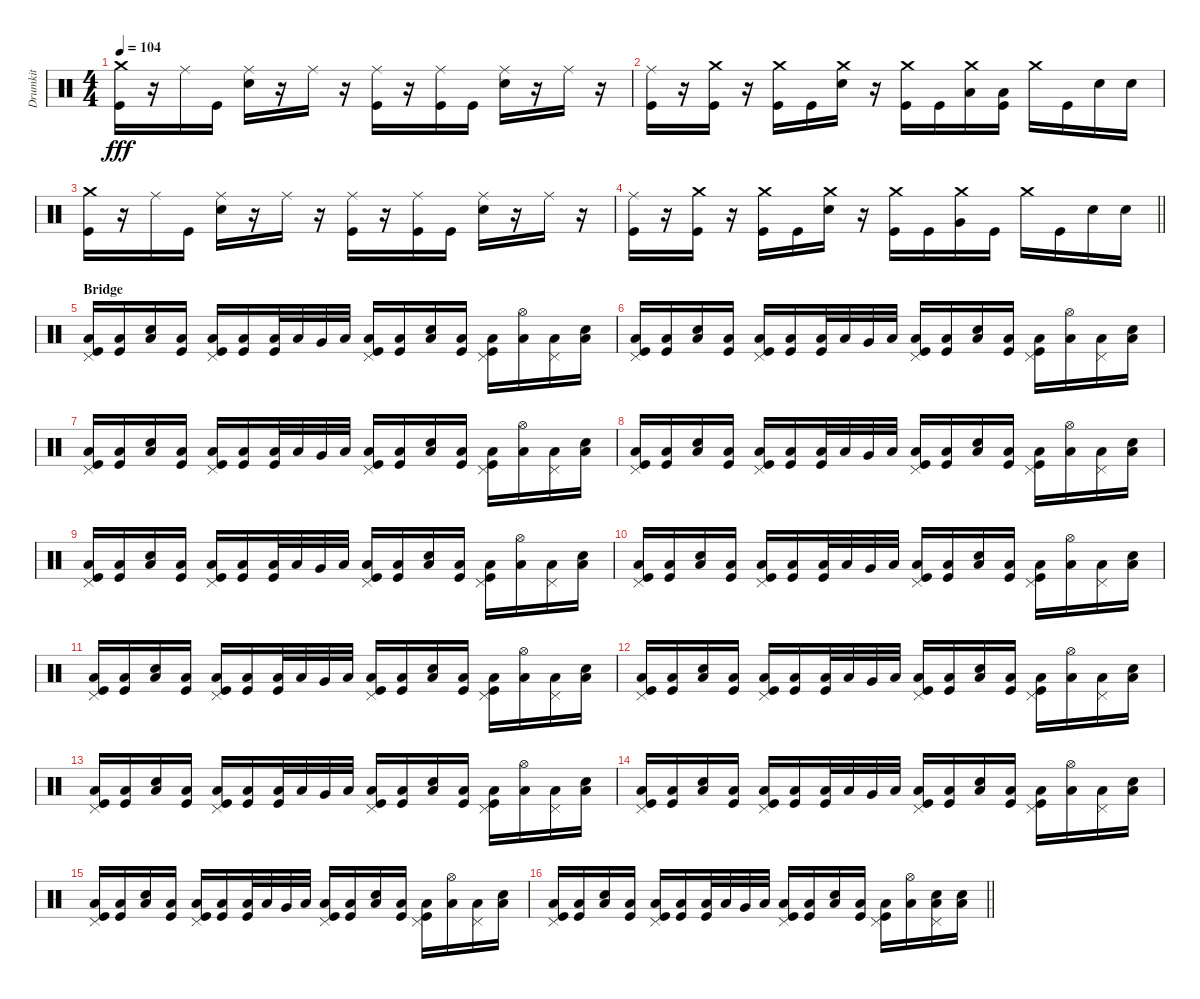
\track ("Drumkit" "Drumkit") {instrument percussion}
\staff {score}
\articulation defaults
\ts (4 4)
\tempo 104
\clef neutral
\ks c
("Crash medium (hit)" "Kick (hit)").16{dy fff} r.16 "Ride (middle)".16 "Kick (hit)".16 ("Ride (middle)" "Snare (hit) 2").16 r.16 "Ride (middle)".16 r.16 ("Ride (middle)" "Kick (hit)").16 r.16 ("Ride (middle)" "Kick (hit)").16 "Kick (hit)".16 ("Ride (middle)" "Snare (hit) 2").16 r.16 "Ride (middle)".16 r.16 |
("Ride (middle)" "Kick (hit)").16 r.16 ("Crash medium (hit)" "Kick (hit)").16 r.16 ("Crash medium (hit)" "Kick (hit)").16 "Kick (hit)".16 ("Crash medium (hit)" "Snare (hit) 2").16 r.16 ("Crash medium (hit)" "Kick (hit)").16 "Kick (hit)".16 ("Crash medium (hit)" "Low Tom (hit)").16 ("Low Tom (hit)" "Kick (hit)").16 "Crash medium (hit)".16 "Kick (hit)".16 "Snare (hit) 2".16 "Snare (hit) 2".16 |
("Crash medium (hit)" "Kick (hit)").16 r.16 "Ride (middle)".16 "Kick (hit)".16 ("Ride (middle)" "Snare (hit) 2").16 r.16 "Ride (middle)".16 r.16 ("Ride (middle)" "Kick (hit)").16 r.16 ("Ride (middle)" "Kick (hit)").16 "Kick (hit)".16 ("Ride (middle)" "Snare (hit) 2").16 r.16 "Ride (middle)".16 r.16 |
\barLineRight lightlight
("Ride (middle)" "Kick (hit)").16 r.16 ("Crash medium (hit)" "Kick (hit)").16 r.16 ("Crash medium (hit)" "Kick (hit)").16 "Kick (hit)".16 ("Crash medium (hit)" "Snare (hit) 2").16 r.16 ("Crash medium (hit)" "Kick (hit)").16 "Kick (hit)".16 ("Crash medium (hit)" "Very Low Tom (hit)").16 "Kick (hit)".16 "Crash medium (hit)".16 "Kick (hit)".16 "Snare (hit) 2".16 "Snare (hit) 2".16 |
\section ("" "Bridge")
("Pedal Hi-Hat (hit)" "Low Floor Tom (hit)" "Kick (hit)").16 ("Low Floor Tom (hit)" "Kick (hit)").16 ("Low Floor Tom (hit)" "Snare (hit) 2").16 ("Low Floor Tom (hit)" "Kick (hit)").16 ("Pedal Hi-Hat (hit)" "Low Floor Tom (hit)" "Kick (hit)").16 ("Low Floor Tom (hit)" "Kick (hit)").16 ("Low Tom (hit)" "Kick (hit)").32 "Low Tom (hit)".32 "Very Low Tom (hit)".32 "Low Floor Tom (hit)".32 ("Pedal Hi-Hat (hit)" "Low Floor Tom (hit)" "Kick (hit)").16 ("Low Floor Tom (hit)" "Kick (hit)").16 ("Low Floor Tom (hit)" "Snare (hit) 2").16 ("Low Floor Tom (hit)" "Kick (hit)").16 ("Pedal Hi-Hat (hit)" "Low Floor Tom (hit)" "Kick (hit)").16 ("Hi-Hat (open)" "Low Floor Tom (hit)").16 ("Pedal Hi-Hat (hit)" "Low Floor Tom (hit)").16 ("Low Floor Tom (hit)" "Snare (hit) 2").16 |
("Pedal Hi-Hat (hit)" "Low Floor Tom (hit)" "Kick (hit)").16 ("Low Floor Tom (hit)" "Kick (hit)").16 ("Low Floor Tom (hit)" "Snare (hit) 2").16 ("Low Floor Tom (hit)" "Kick (hit)").16 ("Pedal Hi-Hat (hit)" "Low Floor Tom (hit)" "Kick (hit)").16 ("Low Floor Tom (hit)" "Kick (hit)").16 ("Low Tom (hit)" "Kick (hit)").32 "Low Tom (hit)".32 "Very Low Tom (hit)".32 "Low Floor Tom (hit)".32 ("Pedal Hi-Hat (hit)" "Low Floor Tom (hit)" "Kick (hit)").16 ("Low Floor Tom (hit)" "Kick (hit)").16 ("Low Floor Tom (hit)" "Snare (hit) 2").16 ("Low Floor Tom (hit)" "Kick (hit)").16 ("Pedal Hi-Hat (hit)" "Low Floor Tom (hit)" "Kick (hit)").16 ("Hi-Hat (open)" "Low Floor Tom (hit)").16 ("Pedal Hi-Hat (hit)" "Low Floor Tom (hit)").16 ("Low Floor Tom (hit)" "Snare (hit) 2").16 |
("Pedal Hi-Hat (hit)" "Low Floor Tom (hit)" "Kick (hit)").16 ("Low Floor Tom (hit)" "Kick (hit)").16 ("Low Floor Tom (hit)" "Snare (hit) 2").16 ("Low Floor Tom (hit)" "Kick (hit)").16 ("Pedal Hi-Hat (hit)" "Low Floor Tom (hit)" "Kick (hit)").16 ("Low Floor Tom (hit)" "Kick (hit)").16 ("Low Tom (hit)" "Kick (hit)").32 "Low Tom (hit)".32 "Very Low Tom (hit)".32 "Low Floor Tom (hit)".32 ("Pedal Hi-Hat (hit)" "Low Floor Tom (hit)" "Kick (hit)").16 ("Low Floor Tom (hit)" "Kick (hit)").16 ("Low Floor Tom (hit)" "Snare (hit) 2").16 ("Low Floor Tom (hit)" "Kick (hit)").16 ("Pedal Hi-Hat (hit)" "Low Floor Tom (hit)" "Kick (hit)").16 ("Hi-Hat (open)" "Low Floor Tom (hit)").16 ("Pedal Hi-Hat (hit)" "Low Floor Tom (hit)").16 ("Low Floor Tom (hit)" "Snare (hit) 2").16 |
("Pedal Hi-Hat (hit)" "Low Floor Tom (hit)" "Kick (hit)").16 ("Low Floor Tom (hit)" "Kick (hit)").16 ("Low Floor Tom (hit)" "Snare (hit) 2").16 ("Low Floor Tom (hit)" "Kick (hit)").16 ("Pedal Hi-Hat (hit)" "Low Floor Tom (hit)" "Kick (hit)").16 ("Low Floor Tom (hit)" "Kick (hit)").16 ("Low Tom (hit)" "Kick (hit)").32 "Low Tom (hit)".32 "Very Low Tom (hit)".32 "Low Floor Tom (hit)".32 ("Pedal Hi-Hat (hit)" "Low Floor Tom (hit)" "Kick (hit)").16 ("Low Floor Tom (hit)" "Kick (hit)").16 ("Low Floor Tom (hit)" "Snare (hit) 2").16 ("Low Floor Tom (hit)" "Kick (hit)").16 ("Pedal Hi-Hat (hit)" "Low Floor Tom (hit)" "Kick (hit)").16 ("Hi-Hat (open)" "Low Floor Tom (hit)").16 ("Pedal Hi-Hat (hit)" "Low Floor Tom (hit)").16 ("Low Floor Tom (hit)" "Snare (hit) 2").16 |
("Pedal Hi-Hat (hit)" "Low Floor Tom (hit)" "Kick (hit)").16 ("Low Floor Tom (hit)" "Kick (hit)").16 ("Low Floor Tom (hit)" "Snare (hit) 2").16 ("Low Floor Tom (hit)" "Kick (hit)").16 ("Pedal Hi-Hat (hit)" "Low Floor Tom (hit)" "Kick (hit)").16 ("Low Floor Tom (hit)" "Kick (hit)").16 ("Low Tom (hit)" "Kick (hit)").32 "Low Tom (hit)".32 "Very Low Tom (hit)".32 "Low Floor Tom (hit)".32 ("Pedal Hi-Hat (hit)" "Low Floor Tom (hit)" "Kick (hit)").16 ("Low Floor Tom (hit)" "Kick (hit)").16 ("Low Floor Tom (hit)" "Snare (hit) 2").16 ("Low Floor Tom (hit)" "Kick (hit)").16 ("Pedal Hi-Hat (hit)" "Low Floor Tom (hit)" "Kick (hit)").16 ("Hi-Hat (open)" "Low Floor Tom (hit)").16 ("Pedal Hi-Hat (hit)" "Low Floor Tom (hit)").16 ("Low Floor Tom (hit)" "Snare (hit) 2").16 |
("Pedal Hi-Hat (hit)" "Low Floor Tom (hit)" "Kick (hit)").16 ("Low Floor Tom (hit)" "Kick (hit)").16 ("Low Floor Tom (hit)" "Snare (hit) 2").16 ("Low Floor Tom (hit)" "Kick (hit)").16 ("Pedal Hi-Hat (hit)" "Low Floor Tom (hit)" "Kick (hit)").16 ("Low Floor Tom (hit)" "Kick (hit)").16 ("Low Tom (hit)" "Kick (hit)").32 "Low Tom (hit)".32 "Very Low Tom (hit)".32 "Low Floor Tom (hit)".32 ("Pedal Hi-Hat (hit)" "Low Floor Tom (hit)" "Kick (hit)").16 ("Low Floor Tom (hit)" "Kick (hit)").16 ("Low Floor Tom (hit)" "Snare (hit) 2").16 ("Low Floor Tom (hit)" "Kick (hit)").16 ("Pedal Hi-Hat (hit)" "Low Floor Tom (hit)" "Kick (hit)").16 ("Hi-Hat (open)" "Low Floor Tom (hit)").16 ("Pedal Hi-Hat (hit)" "Low Floor Tom (hit)").16 ("Low Floor Tom (hit)" "Snare (hit) 2").16 |
("Pedal Hi-Hat (hit)" "Low Floor Tom (hit)" "Kick (hit)").16 ("Low Floor Tom (hit)" "Kick (hit)").16 ("Low Floor Tom (hit)" "Snare (hit) 2").16 ("Low Floor Tom (hit)" "Kick (hit)").16 ("Pedal Hi-Hat (hit)" "Low Floor Tom (hit)" "Kick (hit)").16 ("Low Floor Tom (hit)" "Kick (hit)").16 ("Low Tom (hit)" "Kick (hit)").32 "Low Tom (hit)".32 "Very Low Tom (hit)".32 "Low Floor Tom (hit)".32 ("Pedal Hi-Hat (hit)" "Low Floor Tom (hit)" "Kick (hit)").16 ("Low Floor Tom (hit)" "Kick (hit)").16 ("Low Floor Tom (hit)" "Snare (hit) 2").16 ("Low Floor Tom (hit)" "Kick (hit)").16 ("Pedal Hi-Hat (hit)" "Low Floor Tom (hit)" "Kick (hit)").16 ("Hi-Hat (open)" "Low Floor Tom (hit)").16 ("Pedal Hi-Hat (hit)" "Low Floor Tom (hit)").16 ("Low Floor Tom (hit)" "Snare (hit) 2").16 |
("Pedal Hi-Hat (hit)" "Low Floor Tom (hit)" "Kick (hit)").16 ("Low Floor Tom (hit)" "Kick (hit)").16 ("Low Floor Tom (hit)" "Snare (hit) 2").16 ("Low Floor Tom (hit)" "Kick (hit)").16 ("Pedal Hi-Hat (hit)" "Low Floor Tom (hit)" "Kick (hit)").16 ("Low Floor Tom (hit)" "Kick (hit)").16 ("Low Tom (hit)" "Kick (hit)").32 "Low Tom (hit)".32 "Very Low Tom (hit)".32 "Low Floor Tom (hit)".32 ("Pedal Hi-Hat (hit)" "Low Floor Tom (hit)" "Kick (hit)").16 ("Low Floor Tom (hit)" "Kick (hit)").16 ("Low Floor Tom (hit)" "Snare (hit) 2").16 ("Low Floor Tom (hit)" "Kick (hit)").16 ("Pedal Hi-Hat (hit)" "Low Floor Tom (hit)" "Kick (hit)").16 ("Hi-Hat (open)" "Low Floor Tom (hit)").16 ("Pedal Hi-Hat (hit)" "Low Floor Tom (hit)").16 ("Low Floor Tom (hit)" "Snare (hit) 2").16 |
("Pedal Hi-Hat (hit)" "Low Floor Tom (hit)" "Kick (hit)").16 ("Low Floor Tom (hit)" "Kick (hit)").16 ("Low Floor Tom (hit)" "Snare (hit) 2").16 ("Low Floor Tom (hit)" "Kick (hit)").16 ("Pedal Hi-Hat (hit)" "Low Floor Tom (hit)" "Kick (hit)").16 ("Low Floor Tom (hit)" "Kick (hit)").16 ("Low Tom (hit)" "Kick (hit)").32 "Low Tom (hit)".32 "Very Low Tom (hit)".32 "Low Floor Tom (hit)".32 ("Pedal Hi-Hat (hit)" "Low Floor Tom (hit)" "Kick (hit)").16 ("Low Floor Tom (hit)" "Kick (hit)").16 ("Low Floor Tom (hit)" "Snare (hit) 2").16 ("Low Floor Tom (hit)" "Kick (hit)").16 ("Pedal Hi-Hat (hit)" "Low Floor Tom (hit)" "Kick (hit)").16 ("Hi-Hat (open)" "Low Floor Tom (hit)").16 ("Pedal Hi-Hat (hit)" "Low Floor Tom (hit)").16 ("Low Floor Tom (hit)" "Snare (hit) 2").16 |
("Pedal Hi-Hat (hit)" "Low Floor Tom (hit)" "Kick (hit)").16 ("Low Floor Tom (hit)" "Kick (hit)").16 ("Low Floor Tom (hit)" "Snare (hit) 2").16 ("Low Floor Tom (hit)" "Kick (hit)").16 ("Pedal Hi-Hat (hit)" "Low Floor Tom (hit)" "Kick (hit)").16 ("Low Floor Tom (hit)" "Kick (hit)").16 ("Low Tom (hit)" "Kick (hit)").32 "Low Tom (hit)".32 "Very Low Tom (hit)".32 "Low Floor Tom (hit)".32 ("Pedal Hi-Hat (hit)" "Low Floor Tom (hit)" "Kick (hit)").16 ("Low Floor Tom (hit)" "Kick (hit)").16 ("Low Floor Tom (hit)" "Snare (hit) 2").16 ("Low Floor Tom (hit)" "Kick (hit)").16 ("Pedal Hi-Hat (hit)" "Low Floor Tom (hit)" "Kick (hit)").16 ("Hi-Hat (open)" "Low Floor Tom (hit)").16 ("Pedal Hi-Hat (hit)" "Low Floor Tom (hit)").16 ("Low Floor Tom (hit)" "Snare (hit) 2").16 |
("Pedal Hi-Hat (hit)" "Low Floor Tom (hit)" "Kick (hit)").16 ("Low Floor Tom (hit)" "Kick (hit)").16 ("Low Floor Tom (hit)" "Snare (hit) 2").16 ("Low Floor Tom (hit)" "Kick (hit)").16 ("Pedal Hi-Hat (hit)" "Low Floor Tom (hit)" "Kick (hit)").16 ("Low Floor Tom (hit)" "Kick (hit)").16 ("Low Tom (hit)" "Kick (hit)").32 "Low Tom (hit)".32 "Very Low Tom (hit)".32 "Low Floor Tom (hit)".32 ("Pedal Hi-Hat (hit)" "Low Floor Tom (hit)" "Kick (hit)").16 ("Low Floor Tom (hit)" "Kick (hit)").16 ("Low Floor Tom (hit)" "Snare (hit) 2").16 ("Low Floor Tom (hit)" "Kick (hit)").16 ("Pedal Hi-Hat (hit)" "Low Floor Tom (hit)" "Kick (hit)").16 ("Hi-Hat (open)" "Low Floor Tom (hit)").16 ("Pedal Hi-Hat (hit)" "Low Floor Tom (hit)").16 ("Low Floor Tom (hit)" "Snare (hit) 2").16 |
\barLineRight lightlight
("Pedal Hi-Hat (hit)" "Low Floor Tom (hit)" "Kick (hit)").16 ("Low Floor Tom (hit)" "Kick (hit)").16 ("Low Floor Tom (hit)" "Snare (hit) 2").16 ("Low Floor Tom (hit)" "Kick (hit)").16 ("Pedal Hi-Hat (hit)" "Low Floor Tom (hit)" "Kick (hit)").16 ("Low Floor Tom (hit)" "Kick (hit)").16 ("Low Tom (hit)" "Kick (hit)").32 "Low Tom (hit)".32 "Very Low Tom (hit)".32 "Low Floor Tom (hit)".32 ("Pedal Hi-Hat (hit)" "Low Floor Tom (hit)" "Kick (hit)").16 ("Low Floor Tom (hit)" "Kick (hit)").16 ("Low Floor Tom (hit)" "Snare (hit) 2").16 ("Low Floor Tom (hit)" "Kick (hit)").16 ("Pedal Hi-Hat (hit)" "Low Floor Tom (hit)" "Kick (hit)").16 ("Hi-Hat (open)" "Low Floor Tom (hit)").16 ("Pedal Hi-Hat (hit)" "Low Floor Tom (hit)" "Snare (hit) 2").16 ("Low Floor Tom (hit)" "Snare (hit) 2").16
